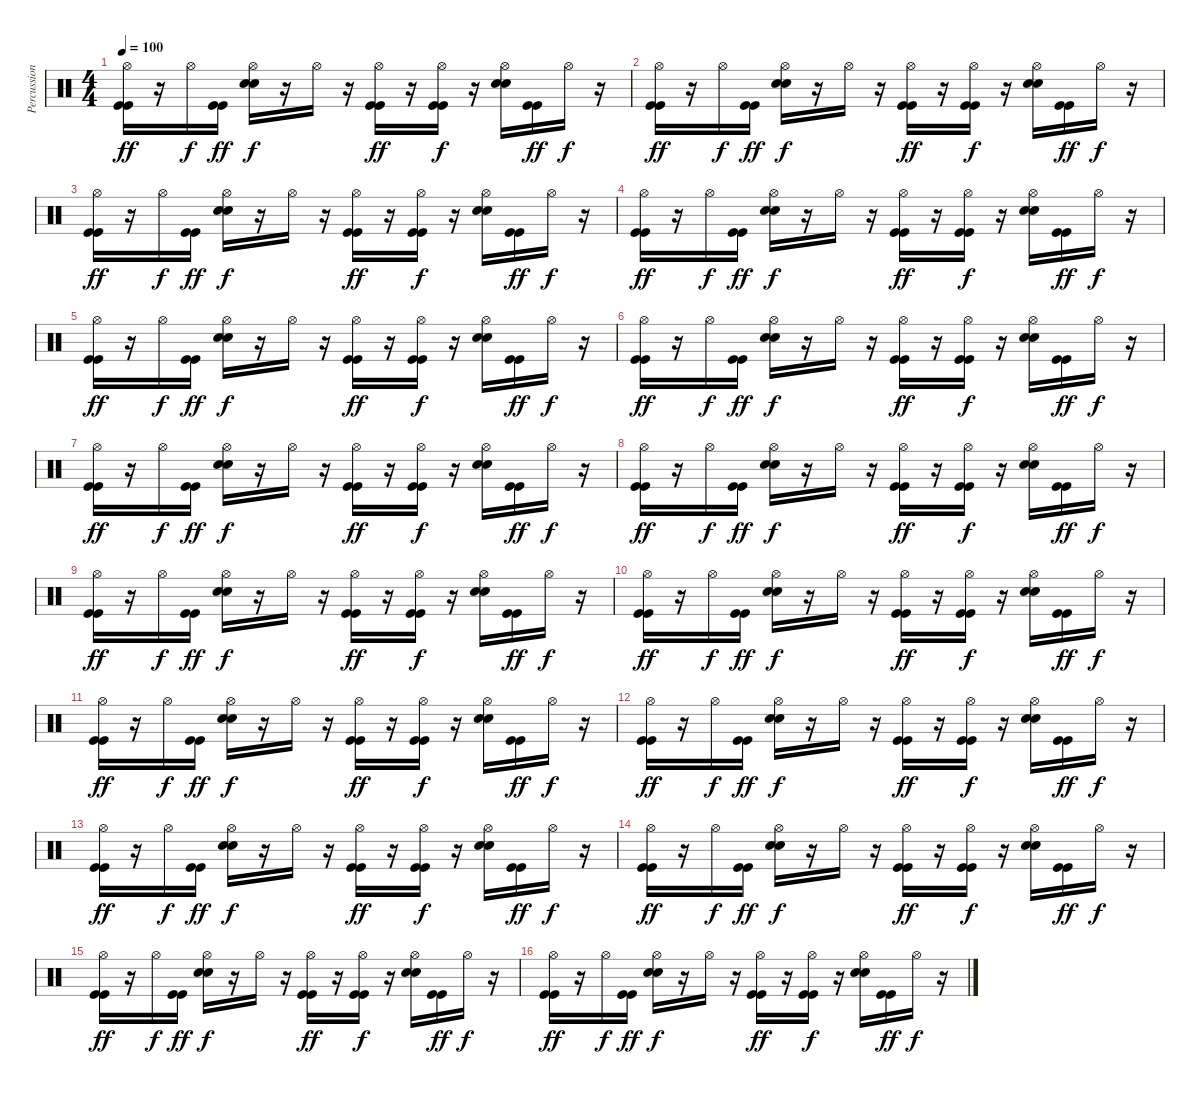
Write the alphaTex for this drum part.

\track ("Percussions" "Percussion") {instrument percussion}
\staff {score}
\articulation defaults
\ts (4 4)
\tempo 100
\clef neutral
\ks c
("Hi-Hat (open)" "Kick (hit)" "Kick (hit)").16{dy ff} r.16 "Hi-Hat (open)".16{dy f} ("Kick (hit)" "Kick (hit)").16{dy ff} ("Hi-Hat (open)" "Electric Snare (hit)" "Electric Snare (hit)").16{dy f} r.16 "Hi-Hat (open)".16 r.16 ("Hi-Hat (open)" "Kick (hit)" "Kick (hit)").16{dy ff} r.16 ("Hi-Hat (open)" "Kick (hit)" "Kick (hit)").16{dy f} r.16 ("Hi-Hat (open)" "Electric Snare (hit)" "Electric Snare (hit)").16 ("Kick (hit)" "Kick (hit)").16{dy ff} "Hi-Hat (open)".16{dy f} r.16 |
("Hi-Hat (open)" "Kick (hit)" "Kick (hit)").16{dy ff} r.16 "Hi-Hat (open)".16{dy f} ("Kick (hit)" "Kick (hit)").16{dy ff} ("Hi-Hat (open)" "Electric Snare (hit)" "Electric Snare (hit)").16{dy f} r.16 "Hi-Hat (open)".16 r.16 ("Hi-Hat (open)" "Kick (hit)" "Kick (hit)").16{dy ff} r.16 ("Hi-Hat (open)" "Kick (hit)" "Kick (hit)").16{dy f} r.16 ("Hi-Hat (open)" "Electric Snare (hit)" "Electric Snare (hit)").16 ("Kick (hit)" "Kick (hit)").16{dy ff} "Hi-Hat (open)".16{dy f} r.16 |
("Hi-Hat (open)" "Kick (hit)" "Kick (hit)").16{dy ff} r.16 "Hi-Hat (open)".16{dy f} ("Kick (hit)" "Kick (hit)").16{dy ff} ("Hi-Hat (open)" "Electric Snare (hit)" "Electric Snare (hit)").16{dy f} r.16 "Hi-Hat (open)".16 r.16 ("Hi-Hat (open)" "Kick (hit)" "Kick (hit)").16{dy ff} r.16 ("Hi-Hat (open)" "Kick (hit)" "Kick (hit)").16{dy f} r.16 ("Hi-Hat (open)" "Electric Snare (hit)" "Electric Snare (hit)").16 ("Kick (hit)" "Kick (hit)").16{dy ff} "Hi-Hat (open)".16{dy f} r.16 |
("Hi-Hat (open)" "Kick (hit)" "Kick (hit)").16{dy ff} r.16 "Hi-Hat (open)".16{dy f} ("Kick (hit)" "Kick (hit)").16{dy ff} ("Hi-Hat (open)" "Electric Snare (hit)" "Electric Snare (hit)").16{dy f} r.16 "Hi-Hat (open)".16 r.16 ("Hi-Hat (open)" "Kick (hit)" "Kick (hit)").16{dy ff} r.16 ("Hi-Hat (open)" "Kick (hit)" "Kick (hit)").16{dy f} r.16 ("Hi-Hat (open)" "Electric Snare (hit)" "Electric Snare (hit)").16 ("Kick (hit)" "Kick (hit)").16{dy ff} "Hi-Hat (open)".16{dy f} r.16 |
("Hi-Hat (open)" "Kick (hit)" "Kick (hit)").16{dy ff} r.16 "Hi-Hat (open)".16{dy f} ("Kick (hit)" "Kick (hit)").16{dy ff} ("Hi-Hat (open)" "Electric Snare (hit)" "Electric Snare (hit)").16{dy f} r.16 "Hi-Hat (open)".16 r.16 ("Hi-Hat (open)" "Kick (hit)" "Kick (hit)").16{dy ff} r.16 ("Hi-Hat (open)" "Kick (hit)" "Kick (hit)").16{dy f} r.16 ("Hi-Hat (open)" "Electric Snare (hit)" "Electric Snare (hit)").16 ("Kick (hit)" "Kick (hit)").16{dy ff} "Hi-Hat (open)".16{dy f} r.16 |
("Hi-Hat (open)" "Kick (hit)" "Kick (hit)").16{dy ff} r.16 "Hi-Hat (open)".16{dy f} ("Kick (hit)" "Kick (hit)").16{dy ff} ("Hi-Hat (open)" "Electric Snare (hit)" "Electric Snare (hit)").16{dy f} r.16 "Hi-Hat (open)".16 r.16 ("Hi-Hat (open)" "Kick (hit)" "Kick (hit)").16{dy ff} r.16 ("Hi-Hat (open)" "Kick (hit)" "Kick (hit)").16{dy f} r.16 ("Hi-Hat (open)" "Electric Snare (hit)" "Electric Snare (hit)").16 ("Kick (hit)" "Kick (hit)").16{dy ff} "Hi-Hat (open)".16{dy f} r.16 |
("Hi-Hat (open)" "Kick (hit)" "Kick (hit)").16{dy ff} r.16 "Hi-Hat (open)".16{dy f} ("Kick (hit)" "Kick (hit)").16{dy ff} ("Hi-Hat (open)" "Electric Snare (hit)" "Electric Snare (hit)").16{dy f} r.16 "Hi-Hat (open)".16 r.16 ("Hi-Hat (open)" "Kick (hit)" "Kick (hit)").16{dy ff} r.16 ("Hi-Hat (open)" "Kick (hit)" "Kick (hit)").16{dy f} r.16 ("Hi-Hat (open)" "Electric Snare (hit)" "Electric Snare (hit)").16 ("Kick (hit)" "Kick (hit)").16{dy ff} "Hi-Hat (open)".16{dy f} r.16 |
("Hi-Hat (open)" "Kick (hit)" "Kick (hit)").16{dy ff} r.16 "Hi-Hat (open)".16{dy f} ("Kick (hit)" "Kick (hit)").16{dy ff} ("Hi-Hat (open)" "Electric Snare (hit)" "Electric Snare (hit)").16{dy f} r.16 "Hi-Hat (open)".16 r.16 ("Hi-Hat (open)" "Kick (hit)" "Kick (hit)").16{dy ff} r.16 ("Hi-Hat (open)" "Kick (hit)" "Kick (hit)").16{dy f} r.16 ("Hi-Hat (open)" "Electric Snare (hit)" "Electric Snare (hit)").16 ("Kick (hit)" "Kick (hit)").16{dy ff} "Hi-Hat (open)".16{dy f} r.16 |
("Hi-Hat (open)" "Kick (hit)" "Kick (hit)").16{dy ff} r.16 "Hi-Hat (open)".16{dy f} ("Kick (hit)" "Kick (hit)").16{dy ff} ("Hi-Hat (open)" "Electric Snare (hit)" "Electric Snare (hit)").16{dy f} r.16 "Hi-Hat (open)".16 r.16 ("Hi-Hat (open)" "Kick (hit)" "Kick (hit)").16{dy ff} r.16 ("Hi-Hat (open)" "Kick (hit)" "Kick (hit)").16{dy f} r.16 ("Hi-Hat (open)" "Electric Snare (hit)" "Electric Snare (hit)").16 ("Kick (hit)" "Kick (hit)").16{dy ff} "Hi-Hat (open)".16{dy f} r.16 |
("Hi-Hat (open)" "Kick (hit)" "Kick (hit)").16{dy ff} r.16 "Hi-Hat (open)".16{dy f} ("Kick (hit)" "Kick (hit)").16{dy ff} ("Hi-Hat (open)" "Electric Snare (hit)" "Electric Snare (hit)").16{dy f} r.16 "Hi-Hat (open)".16 r.16 ("Hi-Hat (open)" "Kick (hit)" "Kick (hit)").16{dy ff} r.16 ("Hi-Hat (open)" "Kick (hit)" "Kick (hit)").16{dy f} r.16 ("Hi-Hat (open)" "Electric Snare (hit)" "Electric Snare (hit)").16 ("Kick (hit)" "Kick (hit)").16{dy ff} "Hi-Hat (open)".16{dy f} r.16 |
("Hi-Hat (open)" "Kick (hit)" "Kick (hit)").16{dy ff} r.16 "Hi-Hat (open)".16{dy f} ("Kick (hit)" "Kick (hit)").16{dy ff} ("Hi-Hat (open)" "Electric Snare (hit)" "Electric Snare (hit)").16{dy f} r.16 "Hi-Hat (open)".16 r.16 ("Hi-Hat (open)" "Kick (hit)" "Kick (hit)").16{dy ff} r.16 ("Hi-Hat (open)" "Kick (hit)" "Kick (hit)").16{dy f} r.16 ("Hi-Hat (open)" "Electric Snare (hit)" "Electric Snare (hit)").16 ("Kick (hit)" "Kick (hit)").16{dy ff} "Hi-Hat (open)".16{dy f} r.16 |
("Hi-Hat (open)" "Kick (hit)" "Kick (hit)").16{dy ff} r.16 "Hi-Hat (open)".16{dy f} ("Kick (hit)" "Kick (hit)").16{dy ff} ("Hi-Hat (open)" "Electric Snare (hit)" "Electric Snare (hit)").16{dy f} r.16 "Hi-Hat (open)".16 r.16 ("Hi-Hat (open)" "Kick (hit)" "Kick (hit)").16{dy ff} r.16 ("Hi-Hat (open)" "Kick (hit)" "Kick (hit)").16{dy f} r.16 ("Hi-Hat (open)" "Electric Snare (hit)" "Electric Snare (hit)").16 ("Kick (hit)" "Kick (hit)").16{dy ff} "Hi-Hat (open)".16{dy f} r.16 |
("Hi-Hat (open)" "Kick (hit)" "Kick (hit)").16{dy ff} r.16 "Hi-Hat (open)".16{dy f} ("Kick (hit)" "Kick (hit)").16{dy ff} ("Hi-Hat (open)" "Electric Snare (hit)" "Electric Snare (hit)").16{dy f} r.16 "Hi-Hat (open)".16 r.16 ("Hi-Hat (open)" "Kick (hit)" "Kick (hit)").16{dy ff} r.16 ("Hi-Hat (open)" "Kick (hit)" "Kick (hit)").16{dy f} r.16 ("Hi-Hat (open)" "Electric Snare (hit)" "Electric Snare (hit)").16 ("Kick (hit)" "Kick (hit)").16{dy ff} "Hi-Hat (open)".16{dy f} r.16 |
("Hi-Hat (open)" "Kick (hit)" "Kick (hit)").16{dy ff} r.16 "Hi-Hat (open)".16{dy f} ("Kick (hit)" "Kick (hit)").16{dy ff} ("Hi-Hat (open)" "Electric Snare (hit)" "Electric Snare (hit)").16{dy f} r.16 "Hi-Hat (open)".16 r.16 ("Hi-Hat (open)" "Kick (hit)" "Kick (hit)").16{dy ff} r.16 ("Hi-Hat (open)" "Kick (hit)" "Kick (hit)").16{dy f} r.16 ("Hi-Hat (open)" "Electric Snare (hit)" "Electric Snare (hit)").16 ("Kick (hit)" "Kick (hit)").16{dy ff} "Hi-Hat (open)".16{dy f} r.16 |
("Hi-Hat (open)" "Kick (hit)" "Kick (hit)").16{dy ff} r.16 "Hi-Hat (open)".16{dy f} ("Kick (hit)" "Kick (hit)").16{dy ff} ("Hi-Hat (open)" "Electric Snare (hit)" "Electric Snare (hit)").16{dy f} r.16 "Hi-Hat (open)".16 r.16 ("Hi-Hat (open)" "Kick (hit)" "Kick (hit)").16{dy ff} r.16 ("Hi-Hat (open)" "Kick (hit)" "Kick (hit)").16{dy f} r.16 ("Hi-Hat (open)" "Electric Snare (hit)" "Electric Snare (hit)").16 ("Kick (hit)" "Kick (hit)").16{dy ff} "Hi-Hat (open)".16{dy f} r.16 |
("Hi-Hat (open)" "Kick (hit)" "Kick (hit)").16{dy ff} r.16 "Hi-Hat (open)".16{dy f} ("Kick (hit)" "Kick (hit)").16{dy ff} ("Hi-Hat (open)" "Electric Snare (hit)" "Electric Snare (hit)").16{dy f} r.16 "Hi-Hat (open)".16 r.16 ("Hi-Hat (open)" "Kick (hit)" "Kick (hit)").16{dy ff} r.16 ("Hi-Hat (open)" "Kick (hit)" "Kick (hit)").16{dy f} r.16 ("Hi-Hat (open)" "Electric Snare (hit)" "Electric Snare (hit)").16 ("Kick (hit)" "Kick (hit)").16{dy ff} "Hi-Hat (open)".16{dy f} r.16
